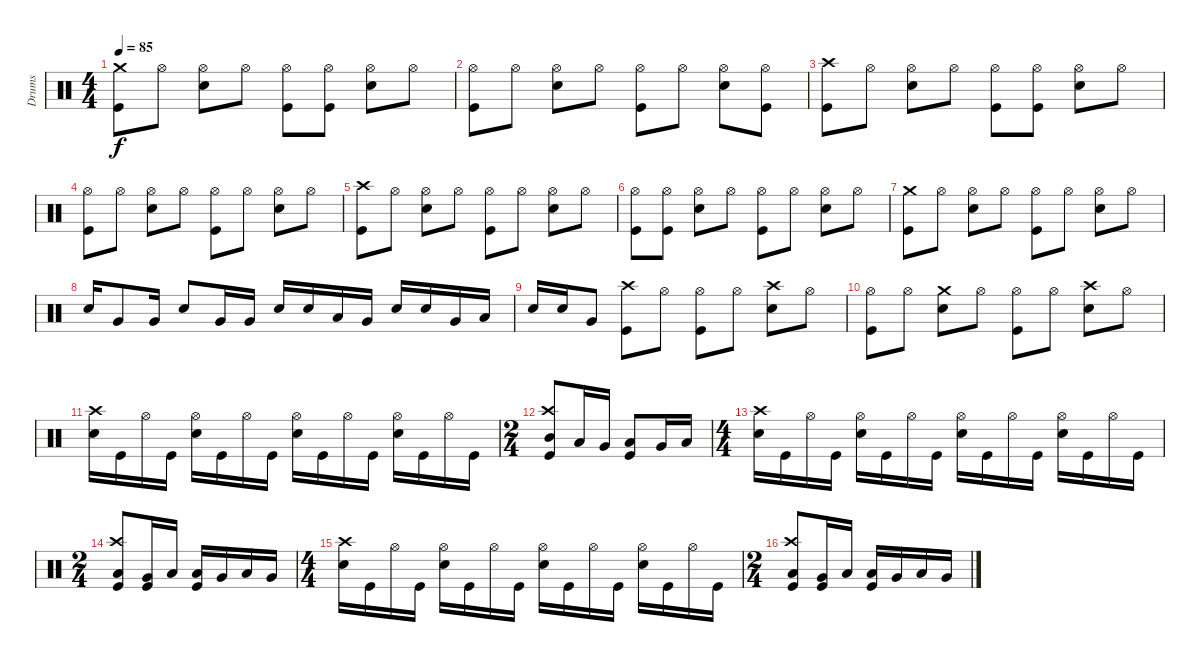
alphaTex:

\track ("Drums" "Drums") {instrument percussion}
\staff {score}
\articulation defaults
\ts (4 4)
\tempo 85
\clef neutral
\ks c
("Crash medium (hit)" "Kick (hit)").8{dy f} "Hi-Hat (open)".8 ("Hi-Hat (open)" "Snare (hit) 2").8 "Hi-Hat (open)".8 ("Kick (hit)" "Hi-Hat (open)").8 ("Kick (hit)" "Hi-Hat (open)").8 ("Snare (hit) 2" "Hi-Hat (open)").8 "Hi-Hat (open)".8 |
("Kick (hit)" "Hi-Hat (open)").8 "Hi-Hat (open)".8 ("Snare (hit) 2" "Hi-Hat (open)").8 "Hi-Hat (open)".8 ("Kick (hit)" "Hi-Hat (open)").8 "Hi-Hat (open)".8 ("Snare (hit) 2" "Hi-Hat (open)").8 ("Kick (hit)" "Hi-Hat (open)").8 |
("Crash high (hit)" "Kick (hit)").8 "Hi-Hat (open)".8 ("Snare (hit) 2" "Hi-Hat (open)").8 "Hi-Hat (open)".8 ("Hi-Hat (open)" "Kick (hit)").8 ("Hi-Hat (open)" "Kick (hit)").8 ("Hi-Hat (open)" "Snare (hit) 2").8 "Hi-Hat (open)".8 |
("Kick (hit)" "Hi-Hat (open)").8 "Hi-Hat (open)".8 ("Hi-Hat (open)" "Snare (hit) 2").8 "Hi-Hat (open)".8 ("Hi-Hat (open)" "Kick (hit)").8 "Hi-Hat (open)".8 ("Snare (hit) 2" "Hi-Hat (open)").8 "Hi-Hat (open)".8 |
("Crash high (hit)" "Kick (hit)").8 "Hi-Hat (open)".8 ("Snare (hit) 2" "Hi-Hat (open)").8 "Hi-Hat (open)".8 ("Hi-Hat (open)" "Kick (hit)").8 "Hi-Hat (open)".8 ("Snare (hit) 2" "Hi-Hat (open)").8 "Hi-Hat (open)".8 |
("Kick (hit)" "Hi-Hat (open)").8 ("Kick (hit)" "Hi-Hat (open)").8 ("Snare (hit) 2" "Hi-Hat (open)").8 "Hi-Hat (open)".8 ("Hi-Hat (open)" "Kick (hit)").8 "Hi-Hat (open)".8 ("Hi-Hat (open)" "Snare (hit) 2").8 "Hi-Hat (open)".8 |
("Crash medium (hit)" "Kick (hit)").8 "Hi-Hat (open)".8 ("Snare (hit) 2" "Hi-Hat (open)").8 "Hi-Hat (open)".8 ("Kick (hit)" "Hi-Hat (open)").8 "Hi-Hat (open)".8 ("Snare (hit) 2" "Hi-Hat (open)").8 "Hi-Hat (open)".8 |
"Snare (hit) 2".16 "Very Low Tom (hit)".8 "Very Low Tom (hit)".16 "Snare (hit) 2".8 "Very Low Tom (hit)".16 "Very Low Tom (hit)".16 "Snare (hit) 2".16 "Snare (hit) 2".16 "Low Tom (hit)".16 "Very Low Tom (hit)".16 "Snare (hit) 2".16 "Snare (hit) 2".16 "Very Low Tom (hit)".16 "Low Floor Tom (hit)".16 |
"Snare (hit) 2".16 "Snare (hit) 2".16 "Very Low Tom (hit)".8 ("Crash high (hit)" "Kick (hit)").8 "Hi-Hat (open)".8 ("Kick (hit)" "Hi-Hat (open)").8 "Hi-Hat (open)".8 ("Snare (hit) 2" "Crash high (hit)").8 "Hi-Hat (open)".8 |
("Hi-Hat (open)" "Kick (hit)").8 "Hi-Hat (open)".8 ("Snare (hit) 2" "Crash medium (hit)").8 "Hi-Hat (open)".8 ("Kick (hit)" "Hi-Hat (open)").8 "Hi-Hat (open)".8 ("Crash high (hit)" "Snare (hit) 2").8 "Hi-Hat (open)".8 |
("Snare (hit) 2" "Crash high (hit)").16 "Kick (hit)".16 "Hi-Hat (open)".16 "Kick (hit)".16 ("Snare (hit) 2" "Hi-Hat (open)").16 "Kick (hit)".16 "Hi-Hat (open)".16 "Kick (hit)".16 ("Snare (hit) 2" "Hi-Hat (open)").16 "Kick (hit)".16 "Hi-Hat (open)".16 "Kick (hit)".16 ("Snare (hit) 2" "Hi-Hat (open)").16 "Kick (hit)".16 "Hi-Hat (open)".16 "Kick (hit)".16 |
\ts (2 4)
("Mid Tom (hit)" "Kick (hit)" "Crash high (hit)").8 "Low Tom (hit)".16 "Very Low Tom (hit)".16 ("Low Tom (hit)" "Kick (hit)").8 "Very Low Tom (hit)".16 "Low Floor Tom (hit)".16 |
\ts (4 4)
("Snare (hit) 2" "Crash high (hit)").16 "Kick (hit)".16 "Hi-Hat (open)".16 "Kick (hit)".16 ("Snare (hit) 2" "Hi-Hat (open)").16 "Kick (hit)".16 "Hi-Hat (open)".16 "Kick (hit)".16 ("Snare (hit) 2" "Hi-Hat (open)").16 "Kick (hit)".16 "Hi-Hat (open)".16 "Kick (hit)".16 ("Snare (hit) 2" "Hi-Hat (open)").16 "Kick (hit)".16 "Hi-Hat (open)".16 "Kick (hit)".16 |
\ts (2 4)
("Low Tom (hit)" "Kick (hit)" "Crash high (hit)").8 ("Kick (hit)" "Very Low Tom (hit)").16 "Low Floor Tom (hit)".16 ("Low Tom (hit)" "Kick (hit)").16 "Very Low Tom (hit)".16 "Low Floor Tom (hit)".16 "Very Low Tom (hit)".16 |
\ts (4 4)
("Snare (hit) 2" "Crash high (hit)").16 "Kick (hit)".16 "Hi-Hat (open)".16 "Kick (hit)".16 ("Snare (hit) 2" "Hi-Hat (open)").16 "Kick (hit)".16 "Hi-Hat (open)".16 "Kick (hit)".16 ("Snare (hit) 2" "Hi-Hat (open)").16 "Kick (hit)".16 "Hi-Hat (open)".16 "Kick (hit)".16 ("Snare (hit) 2" "Hi-Hat (open)").16 "Kick (hit)".16 "Hi-Hat (open)".16 "Kick (hit)".16 |
\ts (2 4)
("Low Tom (hit)" "Kick (hit)" "Crash high (hit)").8 ("Kick (hit)" "Very Low Tom (hit)").16 "Low Floor Tom (hit)".16 ("Low Tom (hit)" "Kick (hit)").16 "Very Low Tom (hit)".16 "Low Floor Tom (hit)".16 "Very Low Tom (hit)".16
